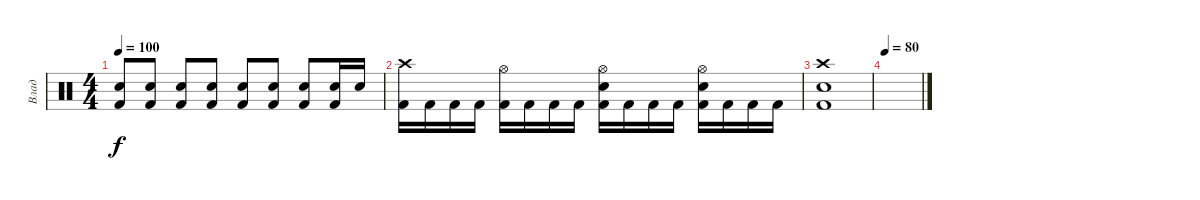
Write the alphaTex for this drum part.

\track ("Влад" "Влад") {instrument percussion}
\staff
\articulation defaults
\ts (4 4)
\tempo 100
\clef neutral
\ks c
("Snare (hit) 2" "Kick (hit) 2").8{dy f} ("Snare (hit) 2" "Kick (hit) 2").8 ("Snare (hit) 2" "Kick (hit) 2").8 ("Snare (hit) 2" "Kick (hit) 2").8 ("Snare (hit) 2" "Kick (hit) 2").8 ("Snare (hit) 2" "Kick (hit) 2").8 ("Snare (hit) 2" "Kick (hit) 2").8 ("Snare (hit) 2" "Kick (hit) 2").16 "Snare (hit) 2".16 |
("Crash high (hit)" "Kick (hit) 2").16 "Kick (hit) 2".16 "Kick (hit) 2".16 "Kick (hit) 2".16 ("Hi-Hat (open)" "Kick (hit) 2").16 "Kick (hit) 2".16 "Kick (hit) 2".16 "Kick (hit) 2".16 ("Hi-Hat (open)" "Snare (hit) 2" "Kick (hit) 2").16 "Kick (hit) 2".16 "Kick (hit) 2".16 "Kick (hit) 2".16 ("Hi-Hat (open)" "Snare (hit) 2" "Kick (hit) 2").16 "Kick (hit) 2".16 "Kick (hit) 2".16 "Kick (hit) 2".16 |
("Crash high (hit)" "Snare (hit) 2" "Kick (hit) 2").1 |
\tempo 80
